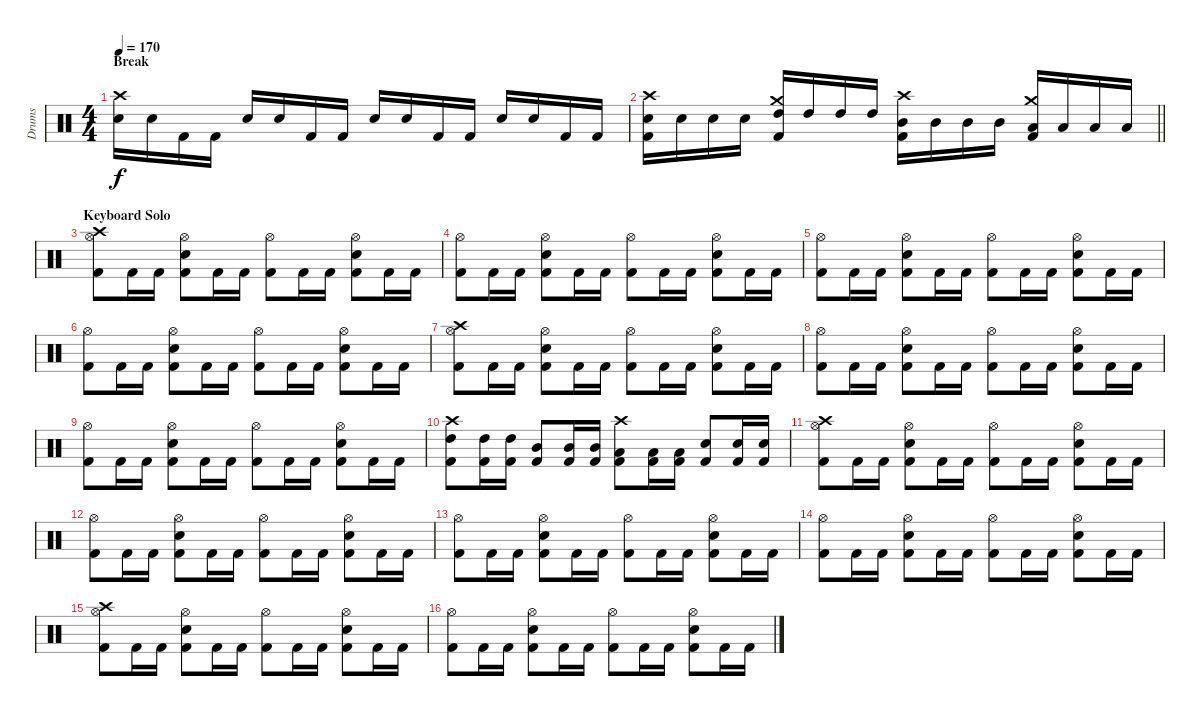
\track ("Drums" "Drums") {instrument percussion}
\staff {score}
\articulation defaults
\ts (4 4)
\section ("" "Break")
\tempo 170
\clef neutral
\ks c
("Crash high (hit)" "Snare (hit) 2").16{dy f} "Snare (hit) 2".16 "Kick (hit) 2".16 "Kick (hit) 2".16 "Snare (hit) 2".16 "Snare (hit) 2".16 "Kick (hit) 2".16 "Kick (hit) 2".16 "Snare (hit) 2".16 "Snare (hit) 2".16 "Kick (hit) 2".16 "Kick (hit) 2".16 "Snare (hit) 2".16 "Snare (hit) 2".16 "Kick (hit) 2".16 "Kick (hit) 2".16 |
\barLineRight lightlight
("Crash high (hit)" "Snare (hit) 2" "Kick (hit) 2").16 "Snare (hit) 2".16 "Snare (hit) 2".16 "Snare (hit) 2".16 ("Crash medium (hit)" "High Tom (hit)" "Kick (hit) 2").16 "High Tom (hit)".16 "High Tom (hit)".16 "High Tom (hit)".16 ("Crash high (hit)" "Mid Tom (hit)" "Kick (hit) 2").16 "Mid Tom (hit)".16 "Mid Tom (hit)".16 "Mid Tom (hit)".16 ("Crash medium (hit)" "Low Tom (hit)" "Kick (hit) 2").16 "Low Tom (hit)".16 "Low Tom (hit)".16 "Low Tom (hit)".16 |
\section ("" "Keyboard Solo")
("Crash high (hit)" "Hi-Hat (open)" "Kick (hit) 2").8 "Kick (hit) 2".16 "Kick (hit) 2".16 ("Hi-Hat (open)" "Snare (hit) 2" "Kick (hit) 2").8 "Kick (hit) 2".16 "Kick (hit) 2".16 ("Hi-Hat (open)" "Kick (hit) 2").8 "Kick (hit) 2".16 "Kick (hit) 2".16 ("Hi-Hat (open)" "Snare (hit) 2" "Kick (hit) 2").8 "Kick (hit) 2".16 "Kick (hit) 2".16 |
("Hi-Hat (open)" "Kick (hit) 2").8 "Kick (hit) 2".16 "Kick (hit) 2".16 ("Hi-Hat (open)" "Snare (hit) 2" "Kick (hit) 2").8 "Kick (hit) 2".16 "Kick (hit) 2".16 ("Hi-Hat (open)" "Kick (hit) 2").8 "Kick (hit) 2".16 "Kick (hit) 2".16 ("Hi-Hat (open)" "Snare (hit) 2" "Kick (hit) 2").8 "Kick (hit) 2".16 "Kick (hit) 2".16 |
("Hi-Hat (open)" "Kick (hit) 2").8 "Kick (hit) 2".16 "Kick (hit) 2".16 ("Hi-Hat (open)" "Snare (hit) 2" "Kick (hit) 2").8 "Kick (hit) 2".16 "Kick (hit) 2".16 ("Hi-Hat (open)" "Kick (hit) 2").8 "Kick (hit) 2".16 "Kick (hit) 2".16 ("Hi-Hat (open)" "Snare (hit) 2" "Kick (hit) 2").8 "Kick (hit) 2".16 "Kick (hit) 2".16 |
("Hi-Hat (open)" "Kick (hit) 2").8 "Kick (hit) 2".16 "Kick (hit) 2".16 ("Hi-Hat (open)" "Snare (hit) 2" "Kick (hit) 2").8 "Kick (hit) 2".16 "Kick (hit) 2".16 ("Hi-Hat (open)" "Kick (hit) 2").8 "Kick (hit) 2".16 "Kick (hit) 2".16 ("Hi-Hat (open)" "Snare (hit) 2" "Kick (hit) 2").8 "Kick (hit) 2".16 "Kick (hit) 2".16 |
("Crash high (hit)" "Hi-Hat (open)" "Kick (hit) 2").8 "Kick (hit) 2".16 "Kick (hit) 2".16 ("Hi-Hat (open)" "Snare (hit) 2" "Kick (hit) 2").8 "Kick (hit) 2".16 "Kick (hit) 2".16 ("Hi-Hat (open)" "Kick (hit) 2").8 "Kick (hit) 2".16 "Kick (hit) 2".16 ("Hi-Hat (open)" "Snare (hit) 2" "Kick (hit) 2").8 "Kick (hit) 2".16 "Kick (hit) 2".16 |
("Hi-Hat (open)" "Kick (hit) 2").8 "Kick (hit) 2".16 "Kick (hit) 2".16 ("Hi-Hat (open)" "Snare (hit) 2" "Kick (hit) 2").8 "Kick (hit) 2".16 "Kick (hit) 2".16 ("Hi-Hat (open)" "Kick (hit) 2").8 "Kick (hit) 2".16 "Kick (hit) 2".16 ("Hi-Hat (open)" "Snare (hit) 2" "Kick (hit) 2").8 "Kick (hit) 2".16 "Kick (hit) 2".16 |
("Hi-Hat (open)" "Kick (hit) 2").8 "Kick (hit) 2".16 "Kick (hit) 2".16 ("Hi-Hat (open)" "Snare (hit) 2" "Kick (hit) 2").8 "Kick (hit) 2".16 "Kick (hit) 2".16 ("Hi-Hat (open)" "Kick (hit) 2").8 "Kick (hit) 2".16 "Kick (hit) 2".16 ("Hi-Hat (open)" "Snare (hit) 2" "Kick (hit) 2").8 "Kick (hit) 2".16 "Kick (hit) 2".16 |
("Crash high (hit)" "High Tom (hit)" "Kick (hit) 2").8 ("High Tom (hit)" "Kick (hit) 2").16 ("High Tom (hit)" "Kick (hit) 2").16 ("Mid Tom (hit)" "Kick (hit) 2").8 ("Mid Tom (hit)" "Kick (hit) 2").16 ("Mid Tom (hit)" "Kick (hit) 2").16 ("Crash high (hit)" "Low Tom (hit)" "Kick (hit) 2").8 ("Low Tom (hit)" "Kick (hit) 2").16 ("Low Tom (hit)" "Kick (hit) 2").16 ("Snare (hit) 2" "Kick (hit) 2").8 ("Snare (hit) 2" "Kick (hit) 2").16 ("Snare (hit) 2" "Kick (hit) 2").16 |
("Crash high (hit)" "Hi-Hat (open)" "Kick (hit) 2").8 "Kick (hit) 2".16 "Kick (hit) 2".16 ("Hi-Hat (open)" "Snare (hit) 2" "Kick (hit) 2").8 "Kick (hit) 2".16 "Kick (hit) 2".16 ("Hi-Hat (open)" "Kick (hit) 2").8 "Kick (hit) 2".16 "Kick (hit) 2".16 ("Hi-Hat (open)" "Snare (hit) 2" "Kick (hit) 2").8 "Kick (hit) 2".16 "Kick (hit) 2".16 |
("Hi-Hat (open)" "Kick (hit) 2").8 "Kick (hit) 2".16 "Kick (hit) 2".16 ("Hi-Hat (open)" "Snare (hit) 2" "Kick (hit) 2").8 "Kick (hit) 2".16 "Kick (hit) 2".16 ("Hi-Hat (open)" "Kick (hit) 2").8 "Kick (hit) 2".16 "Kick (hit) 2".16 ("Hi-Hat (open)" "Snare (hit) 2" "Kick (hit) 2").8 "Kick (hit) 2".16 "Kick (hit) 2".16 |
("Hi-Hat (open)" "Kick (hit) 2").8 "Kick (hit) 2".16 "Kick (hit) 2".16 ("Hi-Hat (open)" "Snare (hit) 2" "Kick (hit) 2").8 "Kick (hit) 2".16 "Kick (hit) 2".16 ("Hi-Hat (open)" "Kick (hit) 2").8 "Kick (hit) 2".16 "Kick (hit) 2".16 ("Hi-Hat (open)" "Snare (hit) 2" "Kick (hit) 2").8 "Kick (hit) 2".16 "Kick (hit) 2".16 |
("Hi-Hat (open)" "Kick (hit) 2").8 "Kick (hit) 2".16 "Kick (hit) 2".16 ("Hi-Hat (open)" "Snare (hit) 2" "Kick (hit) 2").8 "Kick (hit) 2".16 "Kick (hit) 2".16 ("Hi-Hat (open)" "Kick (hit) 2").8 "Kick (hit) 2".16 "Kick (hit) 2".16 ("Hi-Hat (open)" "Snare (hit) 2" "Kick (hit) 2").8 "Kick (hit) 2".16 "Kick (hit) 2".16 |
("Crash high (hit)" "Hi-Hat (open)" "Kick (hit) 2").8 "Kick (hit) 2".16 "Kick (hit) 2".16 ("Hi-Hat (open)" "Snare (hit) 2" "Kick (hit) 2").8 "Kick (hit) 2".16 "Kick (hit) 2".16 ("Hi-Hat (open)" "Kick (hit) 2").8 "Kick (hit) 2".16 "Kick (hit) 2".16 ("Hi-Hat (open)" "Snare (hit) 2" "Kick (hit) 2").8 "Kick (hit) 2".16 "Kick (hit) 2".16 |
("Hi-Hat (open)" "Kick (hit) 2").8 "Kick (hit) 2".16 "Kick (hit) 2".16 ("Hi-Hat (open)" "Snare (hit) 2" "Kick (hit) 2").8 "Kick (hit) 2".16 "Kick (hit) 2".16 ("Hi-Hat (open)" "Kick (hit) 2").8 "Kick (hit) 2".16 "Kick (hit) 2".16 ("Hi-Hat (open)" "Snare (hit) 2" "Kick (hit) 2").8 "Kick (hit) 2".16 "Kick (hit) 2".16
